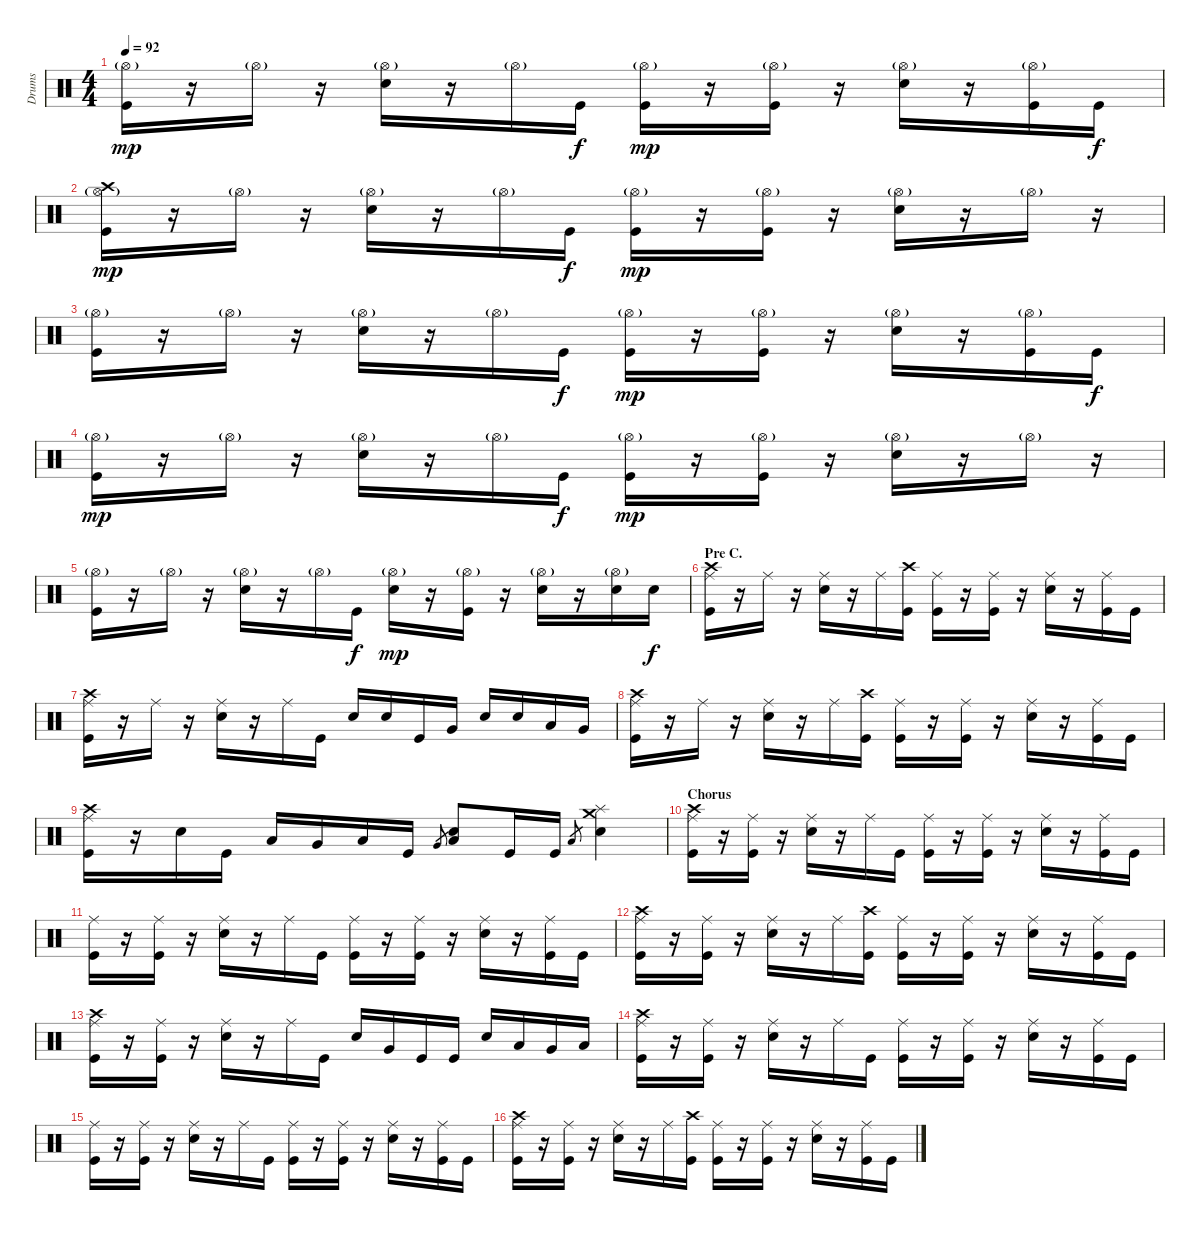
\track ("Drums" "Drums") {instrument percussion}
\staff {score}
\articulation defaults
\ts (4 4)
\tempo 92
\clef neutral
\ks c
("Hi-Hat (open)"{g} "Kick (hit)").16{dy mp} r.16 "Hi-Hat (open)"{g}.16 r.16 ("Hi-Hat (open)"{g} "Snare (hit) 2").16 r.16 "Hi-Hat (open)"{g}.16 "Kick (hit)".16{dy f} ("Hi-Hat (open)"{g} "Kick (hit)").16{dy mp} r.16 ("Hi-Hat (open)"{g} "Kick (hit)").16 r.16 ("Hi-Hat (open)"{g} "Snare (hit) 2").16 r.16 ("Hi-Hat (open)"{g} "Kick (hit)").16 "Kick (hit)".16{dy f} |
("Hi-Hat (open)"{g} "Crash high (hit)" "Kick (hit)").16{dy mp} r.16 "Hi-Hat (open)"{g}.16 r.16 ("Hi-Hat (open)"{g} "Snare (hit) 2").16 r.16 "Hi-Hat (open)"{g}.16 "Kick (hit)".16{dy f} ("Hi-Hat (open)"{g} "Kick (hit)").16{dy mp} r.16 ("Hi-Hat (open)"{g} "Kick (hit)").16 r.16 ("Hi-Hat (open)"{g} "Snare (hit) 2").16 r.16 "Hi-Hat (open)"{g}.16 r.16 |
("Hi-Hat (open)"{g} "Kick (hit)").16 r.16 "Hi-Hat (open)"{g}.16 r.16 ("Hi-Hat (open)"{g} "Snare (hit) 2").16 r.16 "Hi-Hat (open)"{g}.16 "Kick (hit)".16{dy f} ("Hi-Hat (open)"{g} "Kick (hit)").16{dy mp} r.16 ("Hi-Hat (open)"{g} "Kick (hit)").16 r.16 ("Hi-Hat (open)"{g} "Snare (hit) 2").16 r.16 ("Hi-Hat (open)"{g} "Kick (hit)").16 "Kick (hit)".16{dy f} |
("Hi-Hat (open)"{g} "Kick (hit)").16{dy mp} r.16 "Hi-Hat (open)"{g}.16 r.16 ("Hi-Hat (open)"{g} "Snare (hit) 2").16 r.16 "Hi-Hat (open)"{g}.16 "Kick (hit)".16{dy f} ("Hi-Hat (open)"{g} "Kick (hit)").16{dy mp} r.16 ("Hi-Hat (open)"{g} "Kick (hit)").16 r.16 ("Hi-Hat (open)"{g} "Snare (hit) 2").16 r.16 "Hi-Hat (open)"{g}.16 r.16 |
("Hi-Hat (open)"{g} "Kick (hit)").16 r.16 "Hi-Hat (open)"{g}.16 r.16 ("Hi-Hat (open)"{g} "Snare (hit) 2").16 r.16 "Hi-Hat (open)"{g}.16 "Kick (hit)".16{dy f} ("Hi-Hat (open)"{g} "Snare (hit) 2").16{dy mp} r.16 ("Hi-Hat (open)"{g} "Kick (hit)").16 r.16 ("Hi-Hat (open)"{g} "Snare (hit) 2").16 r.16 ("Hi-Hat (open)"{g} "Snare (hit) 2").16 "Snare (hit) 2".16{dy f} |
\section ("" "Pre C.")
("Ride (middle)" "Crash high (hit)" "Kick (hit)").16 r.16 "Ride (middle)".16 r.16 ("Ride (middle)" "Snare (hit) 2").16 r.16 "Ride (middle)".16 ("Crash high (hit)" "Kick (hit)").16 ("Ride (middle)" "Kick (hit)").16 r.16 ("Ride (middle)" "Kick (hit)").16 r.16 ("Ride (middle)" "Snare (hit) 2").16 r.16 ("Ride (middle)" "Kick (hit)").16 "Kick (hit)".16 |
("Ride (middle)" "Crash high (hit)" "Kick (hit)").16 r.16 "Ride (middle)".16 r.16 ("Ride (middle)" "Snare (hit) 2").16 r.16 "Ride (middle)".16 "Kick (hit)".16 "Snare (hit) 2".16 "Snare (hit) 2".16 "Kick (hit)".16 "Very Low Tom (hit)".16 "Snare (hit) 2".16 "Snare (hit) 2".16 "Low Tom (hit)".16 "Very Low Tom (hit)".16 |
("Ride (middle)" "Crash high (hit)" "Kick (hit)").16 r.16 "Ride (middle)".16 r.16 ("Ride (middle)" "Snare (hit) 2").16 r.16 "Ride (middle)".16 ("Crash high (hit)" "Kick (hit)").16 ("Ride (middle)" "Kick (hit)").16 r.16 ("Ride (middle)" "Kick (hit)").16 r.16 ("Ride (middle)" "Snare (hit) 2").16 r.16 ("Ride (middle)" "Kick (hit)").16 "Kick (hit)".16 |
("Ride (middle)" "Crash high (hit)" "Kick (hit)").16 r.16 "Snare (hit) 2".16 "Kick (hit)".16 "Low Tom (hit)".16 "Very Low Tom (hit)".16 "Low Floor Tom (hit)".16 "Kick (hit)".16 "Very Low Tom (hit)".8{gr} ("Low Floor Tom (hit)" "Snare (hit) 2").8 "Kick (hit)".16 "Kick (hit)".16 "Low Floor Tom (hit)".8{gr} ("Splash (hit)" "Crash medium (hit)" "Snare (hit) 2").4 |
\section ("" "Chorus")
("Ride (middle)" "Crash high (hit)" "Kick (hit)").16 r.16 ("Ride (middle)" "Kick (hit)").16 r.16 ("Ride (middle)" "Snare (hit) 2").16 r.16 "Ride (middle)".16 "Kick (hit)".16 ("Ride (middle)" "Kick (hit)").16 r.16 ("Ride (middle)" "Kick (hit)").16 r.16 ("Ride (middle)" "Snare (hit) 2").16 r.16 ("Ride (middle)" "Kick (hit)").16 "Kick (hit)".16 |
("Ride (middle)" "Kick (hit)").16 r.16 ("Ride (middle)" "Kick (hit)").16 r.16 ("Ride (middle)" "Snare (hit) 2").16 r.16 "Ride (middle)".16 "Kick (hit)".16 ("Ride (middle)" "Kick (hit)").16 r.16 ("Ride (middle)" "Kick (hit)").16 r.16 ("Ride (middle)" "Snare (hit) 2").16 r.16 ("Ride (middle)" "Kick (hit)").16 "Kick (hit)".16 |
("Ride (middle)" "Crash high (hit)" "Kick (hit)").16 r.16 ("Ride (middle)" "Kick (hit)").16 r.16 ("Ride (middle)" "Snare (hit) 2").16 r.16 "Ride (middle)".16 ("Crash high (hit)" "Kick (hit)").16 ("Ride (middle)" "Kick (hit)").16 r.16 ("Ride (middle)" "Kick (hit)").16 r.16 ("Ride (middle)" "Snare (hit) 2").16 r.16 ("Ride (middle)" "Kick (hit)").16 "Kick (hit)".16 |
("Ride (middle)" "Crash high (hit)" "Kick (hit)").16 r.16 ("Ride (middle)" "Kick (hit)").16 r.16 ("Ride (middle)" "Snare (hit) 2").16 r.16 "Ride (middle)".16 "Kick (hit)".16 "Snare (hit) 2".16 "Very Low Tom (hit)".16 "Kick (hit)".16 "Kick (hit)".16 "Snare (hit) 2".16 "Low Tom (hit)".16 "Very Low Tom (hit)".16 "Low Tom (hit)".16 |
("Ride (middle)" "Crash high (hit)" "Kick (hit)").16 r.16 ("Ride (middle)" "Kick (hit)").16 r.16 ("Ride (middle)" "Snare (hit) 2").16 r.16 "Ride (middle)".16 "Kick (hit)".16 ("Ride (middle)" "Kick (hit)").16 r.16 ("Ride (middle)" "Kick (hit)").16 r.16 ("Ride (middle)" "Snare (hit) 2").16 r.16 ("Ride (middle)" "Kick (hit)").16 "Kick (hit)".16 |
("Ride (middle)" "Kick (hit)").16 r.16 ("Ride (middle)" "Kick (hit)").16 r.16 ("Ride (middle)" "Snare (hit) 2").16 r.16 "Ride (middle)".16 "Kick (hit)".16 ("Ride (middle)" "Kick (hit)").16 r.16 ("Ride (middle)" "Kick (hit)").16 r.16 ("Ride (middle)" "Snare (hit) 2").16 r.16 ("Ride (middle)" "Kick (hit)").16 "Kick (hit)".16 |
("Ride (middle)" "Crash high (hit)" "Kick (hit)").16 r.16 ("Ride (middle)" "Kick (hit)").16 r.16 ("Ride (middle)" "Snare (hit) 2").16 r.16 "Ride (middle)".16 ("Crash high (hit)" "Kick (hit)").16 ("Ride (middle)" "Kick (hit)").16 r.16 ("Ride (middle)" "Kick (hit)").16 r.16 ("Ride (middle)" "Snare (hit) 2").16 r.16 ("Ride (middle)" "Kick (hit)").16 "Kick (hit)".16
